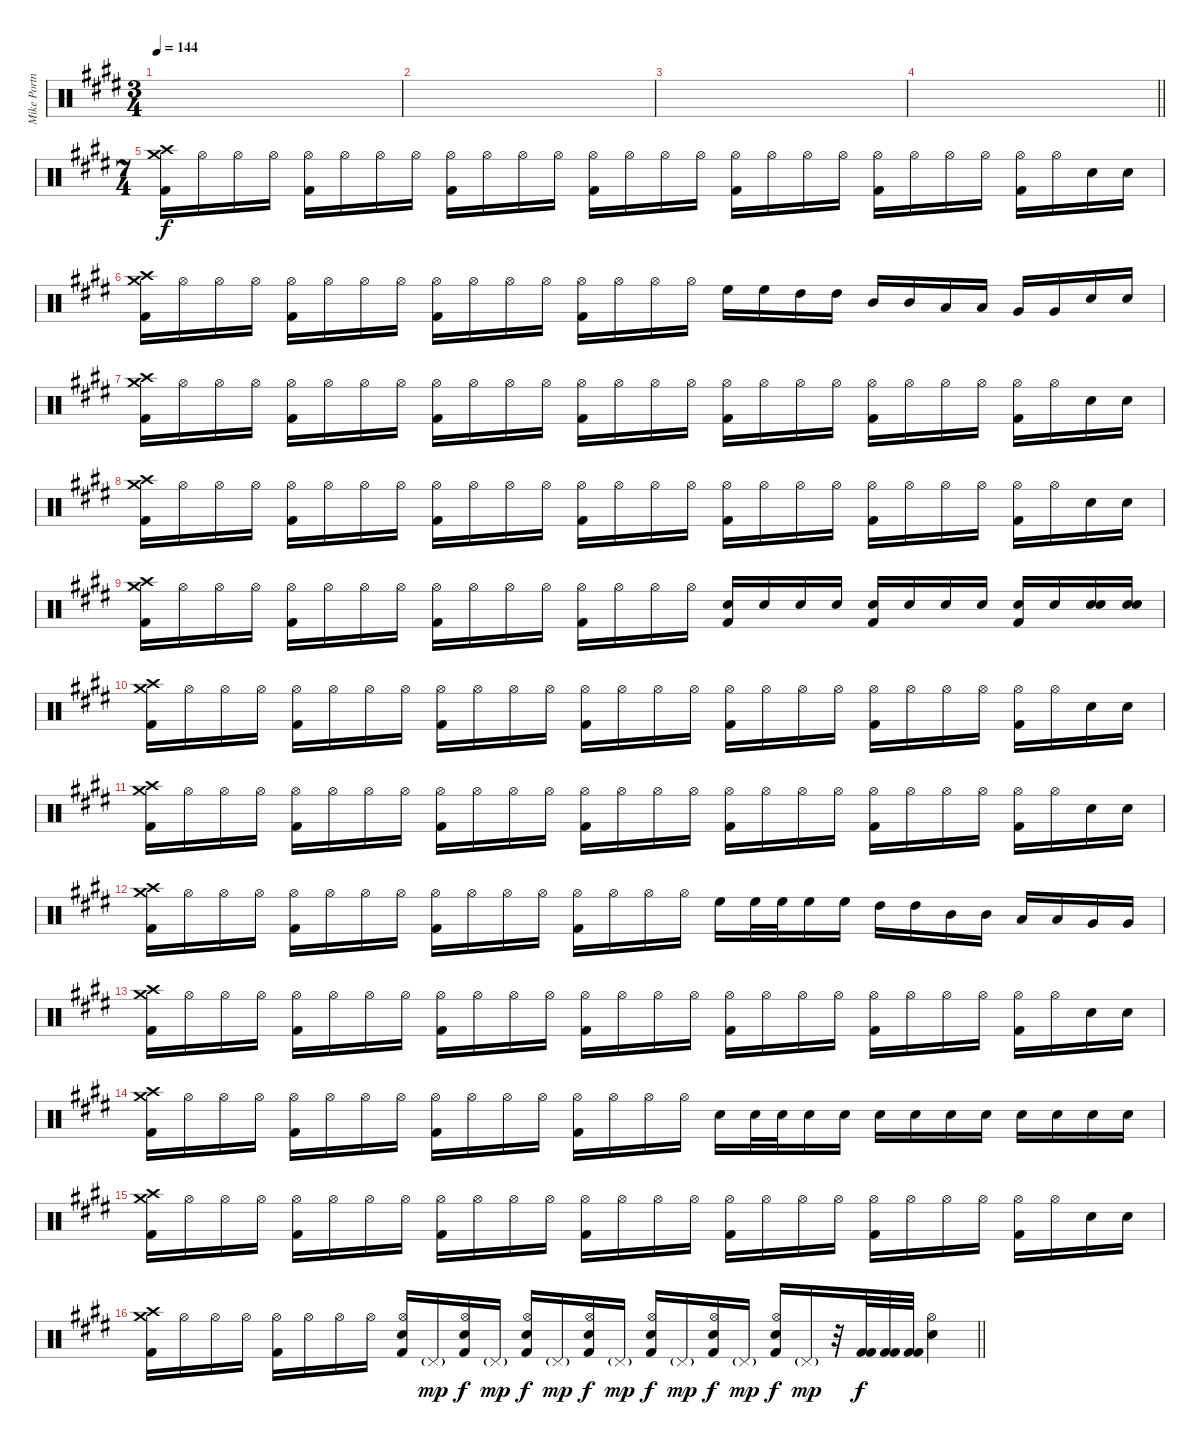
\track ("Mike Portnoy" "Mike Portn") {instrument percussion}
\staff {score}
\articulation defaults
\ts (3 4)
\tempo 144
\clef neutral
\ks e
|
|
|
\barLineRight lightlight
|
\ts (7 4)
("Kick (hit) 2" "Crash high (hit)" "Crash medium (hit)").16 "Hi-Hat (open)".16 "Hi-Hat (open)".16 "Hi-Hat (open)".16 ("Kick (hit) 2" "Hi-Hat (open)").16 "Hi-Hat (open)".16 "Hi-Hat (open)".16 "Hi-Hat (open)".16 ("Kick (hit) 2" "Hi-Hat (open)").16 "Hi-Hat (open)".16 "Hi-Hat (open)".16 "Hi-Hat (open)".16 ("Kick (hit) 2" "Hi-Hat (open)").16 "Hi-Hat (open)".16 "Hi-Hat (open)".16 "Hi-Hat (open)".16 ("Kick (hit) 2" "Hi-Hat (open)").16 "Hi-Hat (open)".16 "Hi-Hat (open)".16 "Hi-Hat (open)".16 ("Kick (hit) 2" "Hi-Hat (open)").16 "Hi-Hat (open)".16 "Hi-Hat (open)".16 "Hi-Hat (open)".16 ("Kick (hit) 2" "Hi-Hat (open)").16 "Hi-Hat (open)".16 "Snare (hit) 2".16 "Snare (hit) 2".16 |
("Kick (hit) 2" "Crash high (hit)" "Crash medium (hit)").16 "Hi-Hat (open)".16 "Hi-Hat (open)".16 "Hi-Hat (open)".16 ("Kick (hit) 2" "Hi-Hat (open)").16 "Hi-Hat (open)".16 "Hi-Hat (open)".16 "Hi-Hat (open)".16 ("Kick (hit) 2" "Hi-Hat (open)").16 "Hi-Hat (open)".16 "Hi-Hat (open)".16 "Hi-Hat (open)".16 ("Kick (hit) 2" "Hi-Hat (open)").16 "Hi-Hat (open)".16 "Hi-Hat (open)".16 "Hi-Hat (open)".16 "High Floor Tom (hit)".16 "High Floor Tom (hit)".16 "High Tom (hit)".16 "High Tom (hit)".16 "Mid Tom (hit)".16 "Mid Tom (hit)".16 "Low Tom (hit)".16 "Low Tom (hit)".16 "Very Low Tom (hit)".16 "Very Low Tom (hit)".16 "Snare (hit) 2".16 "Snare (hit) 2".16 |
("Kick (hit) 2" "Crash high (hit)" "Crash medium (hit)").16 "Hi-Hat (open)".16 "Hi-Hat (open)".16 "Hi-Hat (open)".16 ("Kick (hit) 2" "Hi-Hat (open)").16 "Hi-Hat (open)".16 "Hi-Hat (open)".16 "Hi-Hat (open)".16 ("Kick (hit) 2" "Hi-Hat (open)").16 "Hi-Hat (open)".16 "Hi-Hat (open)".16 "Hi-Hat (open)".16 ("Kick (hit) 2" "Hi-Hat (open)").16 "Hi-Hat (open)".16 "Hi-Hat (open)".16 "Hi-Hat (open)".16 ("Kick (hit) 2" "Hi-Hat (open)").16 "Hi-Hat (open)".16 "Hi-Hat (open)".16 "Hi-Hat (open)".16 ("Kick (hit) 2" "Hi-Hat (open)").16 "Hi-Hat (open)".16 "Hi-Hat (open)".16 "Hi-Hat (open)".16 ("Kick (hit) 2" "Hi-Hat (open)").16 "Hi-Hat (open)".16 "Snare (hit) 2".16 "Snare (hit) 2".16 |
("Kick (hit) 2" "Crash medium (hit)" "Crash high (hit)").16 "Hi-Hat (open)".16 "Hi-Hat (open)".16 "Hi-Hat (open)".16 ("Kick (hit) 2" "Hi-Hat (open)").16 "Hi-Hat (open)".16 "Hi-Hat (open)".16 "Hi-Hat (open)".16 ("Kick (hit) 2" "Hi-Hat (open)").16 "Hi-Hat (open)".16 "Hi-Hat (open)".16 "Hi-Hat (open)".16 ("Kick (hit) 2" "Hi-Hat (open)").16 "Hi-Hat (open)".16 "Hi-Hat (open)".16 "Hi-Hat (open)".16 ("Kick (hit) 2" "Hi-Hat (open)").16 "Hi-Hat (open)".16 "Hi-Hat (open)".16 "Hi-Hat (open)".16 ("Kick (hit) 2" "Hi-Hat (open)").16 "Hi-Hat (open)".16 "Hi-Hat (open)".16 "Hi-Hat (open)".16 ("Kick (hit) 2" "Hi-Hat (open)").16 "Hi-Hat (open)".16 "Snare (hit) 2".16 "Snare (hit) 2".16 |
("Kick (hit) 2" "Crash medium (hit)" "Crash high (hit)").16 "Hi-Hat (open)".16 "Hi-Hat (open)".16 "Hi-Hat (open)".16 ("Kick (hit) 2" "Hi-Hat (open)").16 "Hi-Hat (open)".16 "Hi-Hat (open)".16 "Hi-Hat (open)".16 ("Kick (hit) 2" "Hi-Hat (open)").16 "Hi-Hat (open)".16 "Hi-Hat (open)".16 "Hi-Hat (open)".16 ("Kick (hit) 2" "Hi-Hat (open)").16 "Hi-Hat (open)".16 "Hi-Hat (open)".16 "Hi-Hat (open)".16 ("Kick (hit) 2" "Snare (hit) 2").16 "Snare (hit) 2".16 "Snare (hit) 2".16 "Snare (hit) 2".16 ("Kick (hit) 2" "Snare (hit) 2").16 "Snare (hit) 2".16 "Snare (hit) 2".16 "Snare (hit) 2".16 ("Kick (hit) 2" "Snare (hit) 2").16 "Snare (hit) 2".16 ("Snare (hit) 2" "Snare (hit) 2").16 ("Snare (hit) 2" "Snare (hit) 2").16 |
("Kick (hit) 2" "Crash medium (hit)" "Crash high (hit)").16 "Hi-Hat (open)".16 "Hi-Hat (open)".16 "Hi-Hat (open)".16 ("Kick (hit) 2" "Hi-Hat (open)").16 "Hi-Hat (open)".16 "Hi-Hat (open)".16 "Hi-Hat (open)".16 ("Kick (hit) 2" "Hi-Hat (open)").16 "Hi-Hat (open)".16 "Hi-Hat (open)".16 "Hi-Hat (open)".16 ("Kick (hit) 2" "Hi-Hat (open)").16 "Hi-Hat (open)".16 "Hi-Hat (open)".16 "Hi-Hat (open)".16 ("Kick (hit) 2" "Hi-Hat (open)").16 "Hi-Hat (open)".16 "Hi-Hat (open)".16 "Hi-Hat (open)".16 ("Kick (hit) 2" "Hi-Hat (open)").16 "Hi-Hat (open)".16 "Hi-Hat (open)".16 "Hi-Hat (open)".16 ("Kick (hit) 2" "Hi-Hat (open)").16 "Hi-Hat (open)".16 "Snare (hit) 2".16 "Snare (hit) 2".16 |
("Kick (hit) 2" "Crash medium (hit)" "Crash high (hit)").16 "Hi-Hat (open)".16 "Hi-Hat (open)".16 "Hi-Hat (open)".16 ("Kick (hit) 2" "Hi-Hat (open)").16 "Hi-Hat (open)".16 "Hi-Hat (open)".16 "Hi-Hat (open)".16 ("Kick (hit) 2" "Hi-Hat (open)").16 "Hi-Hat (open)".16 "Hi-Hat (open)".16 "Hi-Hat (open)".16 ("Kick (hit) 2" "Hi-Hat (open)").16 "Hi-Hat (open)".16 "Hi-Hat (open)".16 "Hi-Hat (open)".16 ("Kick (hit) 2" "Hi-Hat (open)").16 "Hi-Hat (open)".16 "Hi-Hat (open)".16 "Hi-Hat (open)".16 ("Kick (hit) 2" "Hi-Hat (open)").16 "Hi-Hat (open)".16 "Hi-Hat (open)".16 "Hi-Hat (open)".16 ("Kick (hit) 2" "Hi-Hat (open)").16 "Hi-Hat (open)".16 "Snare (hit) 2".16 "Snare (hit) 2".16 |
("Kick (hit) 2" "Crash medium (hit)" "Crash high (hit)").16 "Hi-Hat (open)".16 "Hi-Hat (open)".16 "Hi-Hat (open)".16 ("Kick (hit) 2" "Hi-Hat (open)").16 "Hi-Hat (open)".16 "Hi-Hat (open)".16 "Hi-Hat (open)".16 ("Kick (hit) 2" "Hi-Hat (open)").16 "Hi-Hat (open)".16 "Hi-Hat (open)".16 "Hi-Hat (open)".16 ("Kick (hit) 2" "Hi-Hat (open)").16 "Hi-Hat (open)".16 "Hi-Hat (open)".16 "Hi-Hat (open)".16 "High Floor Tom (hit)".16 "High Floor Tom (hit)".32 "High Floor Tom (hit)".32 "High Floor Tom (hit)".16 "High Floor Tom (hit)".16 "High Tom (hit)".16 "High Tom (hit)".16 "Mid Tom (hit)".16 "Mid Tom (hit)".16 "Low Tom (hit)".16 "Low Tom (hit)".16 "Very Low Tom (hit)".16 "Very Low Tom (hit)".16 |
("Kick (hit) 2" "Crash medium (hit)" "Crash high (hit)").16 "Hi-Hat (open)".16 "Hi-Hat (open)".16 "Hi-Hat (open)".16 ("Kick (hit) 2" "Hi-Hat (open)").16 "Hi-Hat (open)".16 "Hi-Hat (open)".16 "Hi-Hat (open)".16 ("Kick (hit) 2" "Hi-Hat (open)").16 "Hi-Hat (open)".16 "Hi-Hat (open)".16 "Hi-Hat (open)".16 ("Kick (hit) 2" "Hi-Hat (open)").16 "Hi-Hat (open)".16 "Hi-Hat (open)".16 "Hi-Hat (open)".16 ("Kick (hit) 2" "Hi-Hat (open)").16 "Hi-Hat (open)".16 "Hi-Hat (open)".16 "Hi-Hat (open)".16 ("Kick (hit) 2" "Hi-Hat (open)").16 "Hi-Hat (open)".16 "Hi-Hat (open)".16 "Hi-Hat (open)".16 ("Kick (hit) 2" "Hi-Hat (open)").16 "Hi-Hat (open)".16 "Snare (hit) 2".16 "Snare (hit) 2".16 |
("Kick (hit) 2" "Crash medium (hit)" "Crash high (hit)").16 "Hi-Hat (open)".16 "Hi-Hat (open)".16 "Hi-Hat (open)".16 ("Kick (hit) 2" "Hi-Hat (open)").16 "Hi-Hat (open)".16 "Hi-Hat (open)".16 "Hi-Hat (open)".16 ("Kick (hit) 2" "Hi-Hat (open)").16 "Hi-Hat (open)".16 "Hi-Hat (open)".16 "Hi-Hat (open)".16 ("Kick (hit) 2" "Hi-Hat (open)").16 "Hi-Hat (open)".16 "Hi-Hat (open)".16 "Hi-Hat (open)".16 "Snare (hit) 2".16 "Snare (hit) 2".32 "Snare (hit) 2".32 "Snare (hit) 2".16 "Snare (hit) 2".16 "Snare (hit) 2".16 "Snare (hit) 2".16 "Snare (hit) 2".16 "Snare (hit) 2".16 "Snare (hit) 2".16 "Snare (hit) 2".16 "Snare (hit) 2".16 "Snare (hit) 2".16 |
("Kick (hit) 2" "Crash medium (hit)" "Crash high (hit)").16 "Hi-Hat (open)".16 "Hi-Hat (open)".16 "Hi-Hat (open)".16 ("Kick (hit) 2" "Hi-Hat (open)").16 "Hi-Hat (open)".16 "Hi-Hat (open)".16 "Hi-Hat (open)".16 ("Kick (hit) 2" "Hi-Hat (open)").16 "Hi-Hat (open)".16 "Hi-Hat (open)".16 "Hi-Hat (open)".16 ("Kick (hit) 2" "Hi-Hat (open)").16 "Hi-Hat (open)".16 "Hi-Hat (open)".16 "Hi-Hat (open)".16 ("Kick (hit) 2" "Hi-Hat (open)").16 "Hi-Hat (open)".16 "Hi-Hat (open)".16 "Hi-Hat (open)".16 ("Kick (hit) 2" "Hi-Hat (open)").16 "Hi-Hat (open)".16 "Hi-Hat (open)".16 "Hi-Hat (open)".16 ("Kick (hit) 2" "Hi-Hat (open)").16 "Hi-Hat (open)".16 "Snare (hit) 2".16 "Snare (hit) 2".16 |
\barLineRight lightlight
("Kick (hit) 2" "Crash medium (hit)" "Crash high (hit)").16 "Hi-Hat (open)".16 "Hi-Hat (open)".16 "Hi-Hat (open)".16 ("Kick (hit) 2" "Hi-Hat (open)").16 "Hi-Hat (open)".16 "Hi-Hat (open)".16 "Hi-Hat (open)".16 ("Hi-Hat (open)" "Kick (hit) 2" "Snare (hit) 2").16 "Pedal Hi-Hat (hit)"{g}.16{dy mp} ("Hi-Hat (open)" "Kick (hit) 2" "Snare (hit) 2").16{dy f} "Pedal Hi-Hat (hit)"{g}.16{dy mp} ("Hi-Hat (open)" "Kick (hit) 2" "Snare (hit) 2").16{dy f} "Pedal Hi-Hat (hit)"{g}.16{dy mp} ("Hi-Hat (open)" "Kick (hit) 2" "Snare (hit) 2").16{dy f} "Pedal Hi-Hat (hit)"{g}.16{dy mp} ("Hi-Hat (open)" "Kick (hit) 2" "Snare (hit) 2").16{dy f} "Pedal Hi-Hat (hit)"{g}.16{dy mp} ("Hi-Hat (open)" "Kick (hit) 2" "Snare (hit) 2").16{dy f} "Pedal Hi-Hat (hit)"{g}.16{dy mp} ("Hi-Hat (open)" "Kick (hit) 2" "Snare (hit) 2").16{dy f} "Pedal Hi-Hat (hit)"{g}.16{dy mp} r.32 ("Kick (hit) 2" "Kick (hit) 2").32{dy f} ("Kick (hit) 2" "Kick (hit) 2").32 ("Kick (hit) 2" "Kick (hit) 2").32 ("Snare (hit) 2" "Hi-Hat (open)").4
